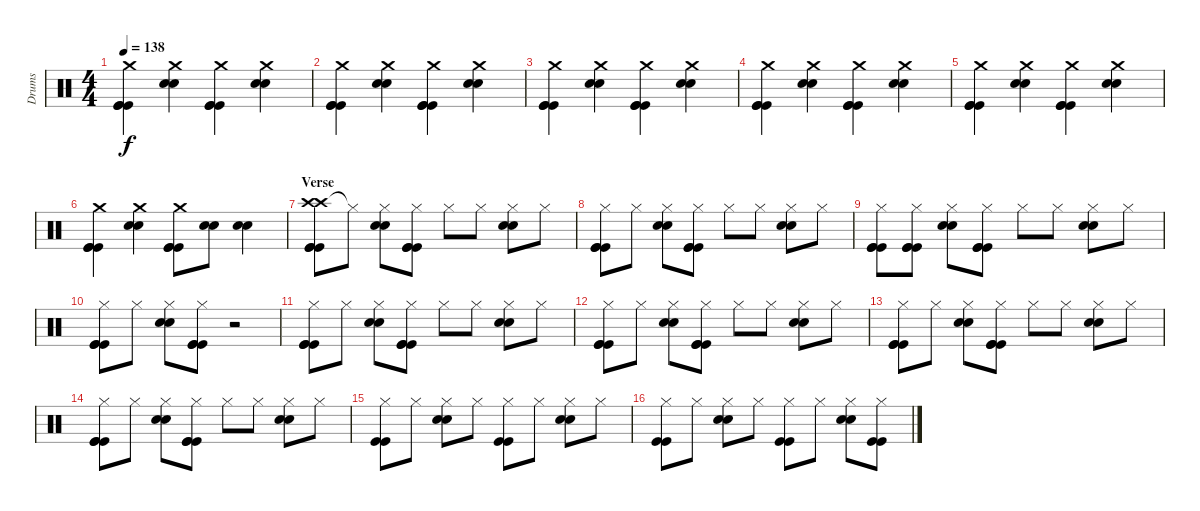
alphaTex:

\track ("Drums" "Drums") {instrument percussion}
\staff {score}
\articulation defaults
\ts (4 4)
\tempo 138
\clef neutral
\ks c
("Crash medium (hit)" "Kick (hit)" "Kick (hit)" "Kick (hit)").4{dy f} ("Crash medium (hit)" "Electric Snare (hit)" "Electric Snare (hit)").4 ("Crash medium (hit)" "Kick (hit)" "Kick (hit)" "Kick (hit)").4 ("Crash medium (hit)" "Electric Snare (hit)" "Electric Snare (hit)").4 |
("Crash medium (hit)" "Kick (hit)" "Kick (hit)" "Kick (hit)").4 ("Crash medium (hit)" "Electric Snare (hit)" "Electric Snare (hit)").4 ("Crash medium (hit)" "Kick (hit)" "Kick (hit)" "Kick (hit)").4 ("Crash medium (hit)" "Electric Snare (hit)" "Electric Snare (hit)").4 |
("Crash medium (hit)" "Kick (hit)" "Kick (hit)" "Kick (hit)").4 ("Crash medium (hit)" "Electric Snare (hit)" "Electric Snare (hit)").4 ("Crash medium (hit)" "Kick (hit)" "Kick (hit)" "Kick (hit)").4 ("Crash medium (hit)" "Electric Snare (hit)" "Electric Snare (hit)").4 |
("Crash medium (hit)" "Kick (hit)" "Kick (hit)" "Kick (hit)").4 ("Crash medium (hit)" "Electric Snare (hit)" "Electric Snare (hit)").4 ("Crash medium (hit)" "Kick (hit)" "Kick (hit)" "Kick (hit)").4 ("Crash medium (hit)" "Electric Snare (hit)" "Electric Snare (hit)").4 |
("Crash medium (hit)" "Kick (hit)" "Kick (hit)" "Kick (hit)").4 ("Crash medium (hit)" "Electric Snare (hit)" "Electric Snare (hit)").4 ("Crash medium (hit)" "Kick (hit)" "Kick (hit)" "Kick (hit)").4 ("Crash medium (hit)" "Electric Snare (hit)" "Electric Snare (hit)").4 |
("Crash medium (hit)" "Kick (hit)" "Kick (hit)" "Kick (hit)").4 ("Crash medium (hit)" "Electric Snare (hit)" "Electric Snare (hit)").4 ("Crash medium (hit)" "Kick (hit)" "Kick (hit)" "Kick (hit)").8 ("Electric Snare (hit)" "Electric Snare (hit)").8 ("Electric Snare (hit)" "Electric Snare (hit)").4 |
\section ("" "Verse")
("Crash high (hit)" "Crash high (hit)" "Kick (hit)" "Kick (hit)" "Kick (hit)").8 "Hi-Hat (closed)"{t}.8 ("Hi-Hat (closed)" "Electric Snare (hit)" "Electric Snare (hit)").8 ("Hi-Hat (closed)" "Kick (hit)" "Kick (hit)" "Kick (hit)").8 "Hi-Hat (closed)".8 "Hi-Hat (closed)".8 ("Hi-Hat (closed)" "Electric Snare (hit)" "Electric Snare (hit)").8 "Hi-Hat (closed)".8 |
("Hi-Hat (closed)" "Kick (hit)" "Kick (hit)" "Kick (hit)").8 "Hi-Hat (closed)".8 ("Hi-Hat (closed)" "Electric Snare (hit)" "Electric Snare (hit)").8 ("Hi-Hat (closed)" "Kick (hit)" "Kick (hit)" "Kick (hit)").8 "Hi-Hat (closed)".8 "Hi-Hat (closed)".8 ("Hi-Hat (closed)" "Electric Snare (hit)" "Electric Snare (hit)").8 "Hi-Hat (closed)".8 |
("Hi-Hat (closed)" "Kick (hit)" "Kick (hit)" "Kick (hit)").8 ("Hi-Hat (closed)" "Kick (hit)" "Kick (hit)" "Kick (hit)").8 ("Hi-Hat (closed)" "Electric Snare (hit)" "Electric Snare (hit)").8 ("Hi-Hat (closed)" "Kick (hit)" "Kick (hit)" "Kick (hit)").8 "Hi-Hat (closed)".8 "Hi-Hat (closed)".8 ("Hi-Hat (closed)" "Electric Snare (hit)" "Electric Snare (hit)").8 "Hi-Hat (closed)".8 |
("Hi-Hat (closed)" "Kick (hit)" "Kick (hit)" "Kick (hit)").8 "Hi-Hat (closed)".8 ("Hi-Hat (closed)" "Electric Snare (hit)" "Electric Snare (hit)").8 ("Hi-Hat (closed)" "Kick (hit)" "Kick (hit)" "Kick (hit)").8 r.2 |
("Hi-Hat (closed)" "Kick (hit)" "Kick (hit)" "Kick (hit)").8 "Hi-Hat (closed)".8 ("Hi-Hat (closed)" "Electric Snare (hit)" "Electric Snare (hit)").8 ("Hi-Hat (closed)" "Kick (hit)" "Kick (hit)" "Kick (hit)").8 "Hi-Hat (closed)".8 "Hi-Hat (closed)".8 ("Hi-Hat (closed)" "Electric Snare (hit)" "Electric Snare (hit)").8 "Hi-Hat (closed)".8 |
("Hi-Hat (closed)" "Kick (hit)" "Kick (hit)" "Kick (hit)").8 "Hi-Hat (closed)".8 ("Hi-Hat (closed)" "Electric Snare (hit)" "Electric Snare (hit)").8 ("Hi-Hat (closed)" "Kick (hit)" "Kick (hit)" "Kick (hit)").8 "Hi-Hat (closed)".8 "Hi-Hat (closed)".8 ("Hi-Hat (closed)" "Electric Snare (hit)" "Electric Snare (hit)").8 "Hi-Hat (closed)".8 |
("Hi-Hat (closed)" "Kick (hit)" "Kick (hit)" "Kick (hit)").8 "Hi-Hat (closed)".8 ("Hi-Hat (closed)" "Electric Snare (hit)" "Electric Snare (hit)").8 ("Hi-Hat (closed)" "Kick (hit)" "Kick (hit)" "Kick (hit)").8 "Hi-Hat (closed)".8 "Hi-Hat (closed)".8 ("Hi-Hat (closed)" "Electric Snare (hit)" "Electric Snare (hit)").8 "Hi-Hat (closed)".8 |
("Hi-Hat (closed)" "Kick (hit)" "Kick (hit)" "Kick (hit)").8 "Hi-Hat (closed)".8 ("Hi-Hat (closed)" "Electric Snare (hit)" "Electric Snare (hit)").8 ("Hi-Hat (closed)" "Kick (hit)" "Kick (hit)" "Kick (hit)").8 "Hi-Hat (closed)".8 "Hi-Hat (closed)".8 ("Hi-Hat (closed)" "Electric Snare (hit)" "Electric Snare (hit)").8 "Hi-Hat (closed)".8 |
("Hi-Hat (closed)" "Kick (hit)" "Kick (hit)").8 "Hi-Hat (closed)".8 ("Hi-Hat (closed)" "Electric Snare (hit)" "Electric Snare (hit)").8 "Hi-Hat (closed)".8 ("Hi-Hat (closed)" "Kick (hit)" "Kick (hit)").8 "Hi-Hat (closed)".8 ("Hi-Hat (closed)" "Electric Snare (hit)" "Electric Snare (hit)").8 "Hi-Hat (closed)".8 |
("Hi-Hat (closed)" "Kick (hit)" "Kick (hit)").8 "Hi-Hat (closed)".8 ("Hi-Hat (closed)" "Electric Snare (hit)" "Electric Snare (hit)").8 "Hi-Hat (closed)".8 ("Hi-Hat (closed)" "Kick (hit)" "Kick (hit)").8 "Hi-Hat (closed)".8 ("Hi-Hat (closed)" "Electric Snare (hit)" "Electric Snare (hit)").8 ("Hi-Hat (closed)" "Kick (hit)" "Kick (hit)").8
